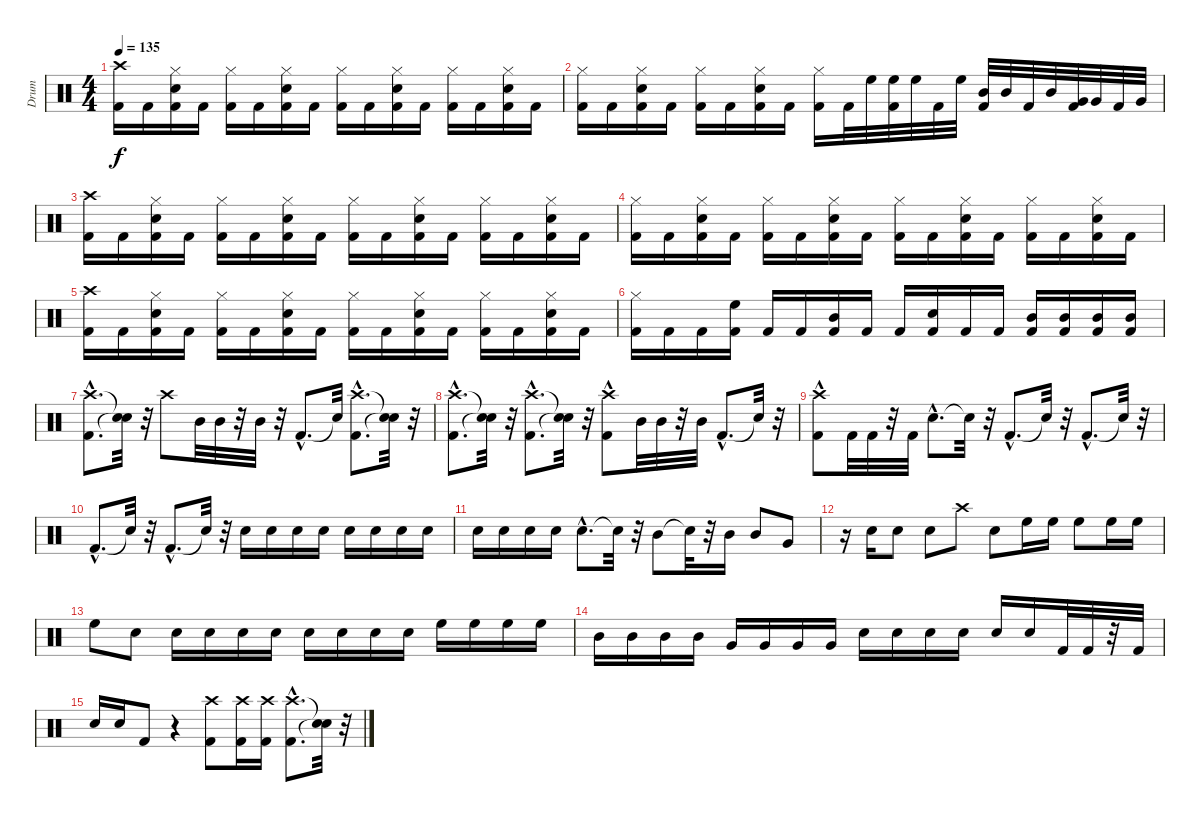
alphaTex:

\track ("Drum" "Drum") {instrument percussion}
\staff {score}
\articulation defaults
\ts (4 4)
\tempo 135
\clef neutral
\ks c
("Kick (hit) 2" "Crash high (hit)").16{dy f} "Kick (hit) 2".16 ("Kick (hit) 2" "Hi-Hat (closed)" "Snare (hit) 2").16 "Kick (hit) 2".16 ("Kick (hit) 2" "Hi-Hat (closed)").16 "Kick (hit) 2".16 ("Kick (hit) 2" "Hi-Hat (closed)" "Snare (hit) 2").16 "Kick (hit) 2".16 ("Kick (hit) 2" "Hi-Hat (closed)").16 "Kick (hit) 2".16 ("Kick (hit) 2" "Hi-Hat (closed)" "Snare (hit) 2").16 "Kick (hit) 2".16 ("Kick (hit) 2" "Hi-Hat (closed)").16 "Kick (hit) 2".16 ("Kick (hit) 2" "Hi-Hat (closed)" "Snare (hit) 2").16 "Kick (hit) 2".16 |
("Hi-Hat (closed)" "Kick (hit) 2").16 "Kick (hit) 2".16 ("Hi-Hat (closed)" "Snare (hit) 2" "Kick (hit) 2").16 "Kick (hit) 2".16 ("Hi-Hat (closed)" "Kick (hit) 2").16 "Kick (hit) 2".16 ("Hi-Hat (closed)" "Snare (hit) 2" "Kick (hit) 2").16 "Kick (hit) 2".16 ("Kick (hit) 2" "Hi-Hat (closed)").16 "Kick (hit) 2".32 "High Floor Tom (hit)".32 ("Kick (hit) 2" "High Floor Tom (hit)").32 "High Floor Tom (hit)".32 "Kick (hit) 2".32 "High Floor Tom (hit)".32 ("Kick (hit) 2" "Mid Tom (hit)").32 "Mid Tom (hit)".32 "Kick (hit) 2".32 "Mid Tom (hit)".32 ("Kick (hit) 2" "Very Low Tom (hit)").32 "Very Low Tom (hit)".32 "Kick (hit) 2".32 "Very Low Tom (hit)".32 |
("Kick (hit) 2" "Crash high (hit)").16 "Kick (hit) 2".16 ("Kick (hit) 2" "Hi-Hat (closed)" "Snare (hit) 2").16 "Kick (hit) 2".16 ("Kick (hit) 2" "Hi-Hat (closed)").16 "Kick (hit) 2".16 ("Kick (hit) 2" "Hi-Hat (closed)" "Snare (hit) 2").16 "Kick (hit) 2".16 ("Kick (hit) 2" "Hi-Hat (closed)").16 "Kick (hit) 2".16 ("Kick (hit) 2" "Hi-Hat (closed)" "Snare (hit) 2").16 "Kick (hit) 2".16 ("Kick (hit) 2" "Hi-Hat (closed)").16 "Kick (hit) 2".16 ("Kick (hit) 2" "Hi-Hat (closed)" "Snare (hit) 2").16 "Kick (hit) 2".16 |
("Kick (hit) 2" "Hi-Hat (closed)").16 "Kick (hit) 2".16 ("Kick (hit) 2" "Hi-Hat (closed)" "Snare (hit) 2").16 "Kick (hit) 2".16 ("Kick (hit) 2" "Hi-Hat (closed)").16 "Kick (hit) 2".16 ("Kick (hit) 2" "Hi-Hat (closed)" "Snare (hit) 2").16 "Kick (hit) 2".16 ("Kick (hit) 2" "Hi-Hat (closed)").16 "Kick (hit) 2".16 ("Kick (hit) 2" "Hi-Hat (closed)" "Snare (hit) 2").16 "Kick (hit) 2".16 ("Kick (hit) 2" "Hi-Hat (closed)").16 "Kick (hit) 2".16 ("Kick (hit) 2" "Hi-Hat (closed)" "Snare (hit) 2").16 "Kick (hit) 2".16 |
("Kick (hit) 2" "Crash high (hit)").16 "Kick (hit) 2".16 ("Kick (hit) 2" "Hi-Hat (closed)" "Snare (hit) 2").16 "Kick (hit) 2".16 ("Kick (hit) 2" "Hi-Hat (closed)").16 "Kick (hit) 2".16 ("Kick (hit) 2" "Hi-Hat (closed)" "Snare (hit) 2").16 "Kick (hit) 2".16 ("Kick (hit) 2" "Hi-Hat (closed)").16 "Kick (hit) 2".16 ("Kick (hit) 2" "Hi-Hat (closed)" "Snare (hit) 2").16 "Kick (hit) 2".16 ("Kick (hit) 2" "Hi-Hat (closed)").16 "Kick (hit) 2".16 ("Kick (hit) 2" "Hi-Hat (closed)" "Snare (hit) 2").16 "Kick (hit) 2".16 |
("Hi-Hat (closed)" "Kick (hit) 2").16 "Kick (hit) 2".16 "Kick (hit) 2".16 ("High Floor Tom (hit)" "Kick (hit) 2").16 "Kick (hit) 2".16 "Kick (hit) 2".16 ("Kick (hit) 2" "Mid Tom (hit)").16 "Kick (hit) 2".16 "Kick (hit) 2".16 ("Kick (hit) 2" "Snare (hit) 2").16 "Kick (hit) 2".16 "Kick (hit) 2".16 ("Kick (hit) 2" "Mid Tom (hit)").16 ("Kick (hit) 2" "Mid Tom (hit)").16 ("Kick (hit) 2" "Mid Tom (hit)").16 ("Kick (hit) 2" "Mid Tom (hit)").16 |
("Crash high (hit)"{hac} "Kick (hit) 2"{hac}).8{d} ("Snare (hit)"{t} "Snare (hit)"{t}).32 r.32 "Crash high (hit)".8 "Mid Tom (hit)".32 "Mid Tom (hit)".32 r.32 "Mid Tom (hit)".32 r.32 "Kick (hit) 2"{hac}.8{d} "Snare (hit)"{t}.32 ("Kick (hit) 2"{hac} "Crash high (hit)"{hac}).8{d} ("Snare (hit)"{t} "Snare (hit)"{t}).32 r.32 |
("Kick (hit) 2"{hac} "Crash high (hit)"{hac}).8{d} ("Snare (hit)"{t} "Snare (hit)"{t}).32 r.32 ("Kick (hit) 2"{hac} "Crash high (hit)"{hac}).8{d} ("Snare (hit)"{t} "Snare (hit)"{t}).32 r.32 ("Kick (hit) 2"{hac} "Crash high (hit)").8 "Mid Tom (hit)".32 "Mid Tom (hit)".32 r.32 "Mid Tom (hit)".32 "Kick (hit) 2"{hac}.8{d} "Snare (hit)"{t}.32 r.32 |
("Kick (hit) 2" "Crash high (hit)"{hac}).8 "Kick (hit) 2".32 "Kick (hit) 2".32 r.32 "Kick (hit) 2".32 "Snare (hit) 2"{hac}.8{d} "Snare (hit)"{t}.32 r.32 "Kick (hit) 2"{hac}.8{d} "Snare (hit)"{t}.32 r.32 "Kick (hit) 2"{hac}.8{d} "Snare (hit)"{t}.32 r.32 |
"Kick (hit) 2"{hac}.8{d} "Snare (hit)"{t}.32 r.32 "Kick (hit) 2"{hac}.8{d} "Snare (hit)"{t}.32 r.32 "Snare (hit) 2".16 "Snare (hit) 2".16 "Snare (hit) 2".16 "Snare (hit) 2".16 "Snare (hit) 2".16 "Snare (hit) 2".16 "Snare (hit) 2".16 "Snare (hit) 2".16 |
"Snare (hit) 2".16 "Snare (hit) 2".16 "Snare (hit) 2".16 "Snare (hit) 2".16 "Snare (hit) 2"{hac}.8{d} "Snare (hit)"{t}.32 r.32 "Mid Tom (hit)".8 "Snare (hit)"{t}.32 r.32 "Mid Tom (hit)".16 "Mid Tom (hit)".8 "Very Low Tom (hit)".8 |
r.16 "Snare (hit) 2".16 "Snare (hit) 2".8 "Snare (hit) 2".8 "Crash high (hit)".8 "Snare (hit) 2".8 "High Floor Tom (hit)".16 "High Floor Tom (hit)".16 "High Floor Tom (hit)".8 "High Floor Tom (hit)".16 "High Floor Tom (hit)".16 |
"High Floor Tom (hit)".8 "Snare (hit) 2".8 "Snare (hit) 2".16 "Snare (hit) 2".16 "Snare (hit) 2".16 "Snare (hit) 2".16 "Snare (hit) 2".16 "Snare (hit) 2".16 "Snare (hit) 2".16 "Snare (hit) 2".16 "High Floor Tom (hit)".16 "High Floor Tom (hit)".16 "High Floor Tom (hit)".16 "High Floor Tom (hit)".16 |
"Mid Tom (hit)".16 "Mid Tom (hit)".16 "Mid Tom (hit)".16 "Mid Tom (hit)".16 "Very Low Tom (hit)".16 "Very Low Tom (hit)".16 "Very Low Tom (hit)".16 "Very Low Tom (hit)".16 "Snare (hit) 2".16 "Snare (hit) 2".16 "Snare (hit) 2".16 "Snare (hit) 2".16 "Snare (hit) 2".16 "Snare (hit) 2".16 "Kick (hit) 2".32 "Kick (hit) 2".32 r.32 "Kick (hit) 2".32 |
"Snare (hit) 2".16 "Snare (hit) 2".16 "Kick (hit) 2".8 r.4 ("Crash high (hit)" "Kick (hit) 2").8 ("Crash high (hit)" "Kick (hit) 2").16 ("Crash high (hit)" "Kick (hit) 2").16 ("Kick (hit) 2"{hac} "Crash high (hit)"{hac}).8{d} ("Snare (hit)"{t} "Snare (hit)"{t}).32 r.32
